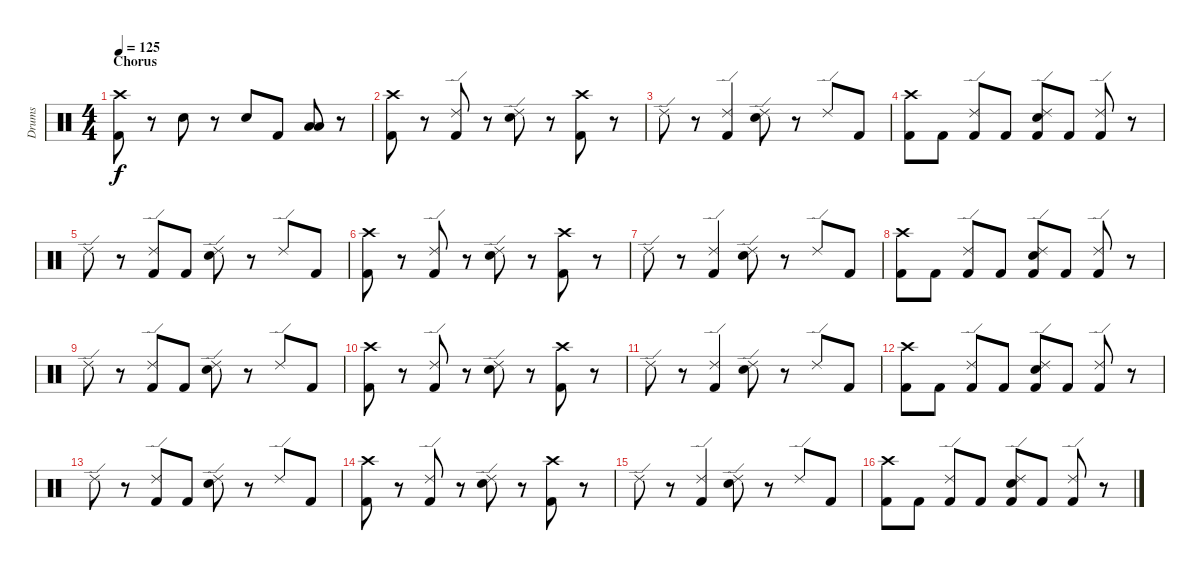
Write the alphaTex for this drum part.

\track ("Drums" "Drums") {instrument percussion}
\staff {score}
\articulation defaults
\ts (4 4)
\section ("" "Chorus")
\tempo 125
\clef neutral
\ks c
("Crash high (hit)" "Kick (hit) 2").8{dy f} r.8 "Electric Snare (hit)".8 r.8 "Electric Snare (hit)".8 "Kick (hit) 2".8 ("Low Tom (hit)" "Low Tom (hit)").8 r.8 |
("Crash high (hit)" "Kick (hit) 2").8 r.8 ("Ride (edge) 2" "Kick (hit) 2").8 r.8 ("Ride (edge) 2" "Electric Snare (hit)").8 r.8 ("Crash high (hit)" "Kick (hit) 2").8 r.8 |
"Ride (edge) 2".8 r.8 ("Ride (edge) 2" "Kick (hit) 2").4 ("Ride (edge) 2" "Electric Snare (hit)").8 r.8 "Ride (edge) 2".8 "Kick (hit) 2".8 |
("Crash high (hit)" "Kick (hit) 2").8 "Kick (hit) 2".8 ("Ride (edge) 2" "Kick (hit) 2").8 "Kick (hit) 2".8 ("Ride (edge) 2" "Electric Snare (hit)" "Kick (hit) 2").8 "Kick (hit) 2".8 ("Ride (edge) 2" "Kick (hit) 2").8 r.8 |
"Ride (edge) 2".8 r.8 ("Ride (edge) 2" "Kick (hit) 2").8 "Kick (hit) 2".8 ("Ride (edge) 2" "Electric Snare (hit)").8 r.8 "Ride (edge) 2".8 "Kick (hit) 2".8 |
("Crash high (hit)" "Kick (hit) 2").8 r.8 ("Ride (edge) 2" "Kick (hit) 2").8 r.8 ("Ride (edge) 2" "Electric Snare (hit)").8 r.8 ("Crash high (hit)" "Kick (hit) 2").8 r.8 |
"Ride (edge) 2".8 r.8 ("Ride (edge) 2" "Kick (hit) 2").4 ("Ride (edge) 2" "Electric Snare (hit)").8 r.8 "Ride (edge) 2".8 "Kick (hit) 2".8 |
("Crash high (hit)" "Kick (hit) 2").8 "Kick (hit) 2".8 ("Ride (edge) 2" "Kick (hit) 2").8 "Kick (hit) 2".8 ("Ride (edge) 2" "Electric Snare (hit)" "Kick (hit) 2").8 "Kick (hit) 2".8 ("Ride (edge) 2" "Kick (hit) 2").8 r.8 |
"Ride (edge) 2".8 r.8 ("Ride (edge) 2" "Kick (hit) 2").8 "Kick (hit) 2".8 ("Ride (edge) 2" "Electric Snare (hit)").8 r.8 "Ride (edge) 2".8 "Kick (hit) 2".8 |
("Crash high (hit)" "Kick (hit) 2").8 r.8 ("Ride (edge) 2" "Kick (hit) 2").8 r.8 ("Ride (edge) 2" "Electric Snare (hit)").8 r.8 ("Crash high (hit)" "Kick (hit) 2").8 r.8 |
"Ride (edge) 2".8 r.8 ("Ride (edge) 2" "Kick (hit) 2").4 ("Ride (edge) 2" "Electric Snare (hit)").8 r.8 "Ride (edge) 2".8 "Kick (hit) 2".8 |
("Crash high (hit)" "Kick (hit) 2").8 "Kick (hit) 2".8 ("Ride (edge) 2" "Kick (hit) 2").8 "Kick (hit) 2".8 ("Ride (edge) 2" "Electric Snare (hit)" "Kick (hit) 2").8 "Kick (hit) 2".8 ("Ride (edge) 2" "Kick (hit) 2").8 r.8 |
"Ride (edge) 2".8 r.8 ("Ride (edge) 2" "Kick (hit) 2").8 "Kick (hit) 2".8 ("Ride (edge) 2" "Electric Snare (hit)").8 r.8 "Ride (edge) 2".8 "Kick (hit) 2".8 |
("Crash high (hit)" "Kick (hit) 2").8 r.8 ("Ride (edge) 2" "Kick (hit) 2").8 r.8 ("Ride (edge) 2" "Electric Snare (hit)").8 r.8 ("Crash high (hit)" "Kick (hit) 2").8 r.8 |
"Ride (edge) 2".8 r.8 ("Ride (edge) 2" "Kick (hit) 2").4 ("Ride (edge) 2" "Electric Snare (hit)").8 r.8 "Ride (edge) 2".8 "Kick (hit) 2".8 |
("Crash high (hit)" "Kick (hit) 2").8 "Kick (hit) 2".8 ("Ride (edge) 2" "Kick (hit) 2").8 "Kick (hit) 2".8 ("Ride (edge) 2" "Electric Snare (hit)" "Kick (hit) 2").8 "Kick (hit) 2".8 ("Ride (edge) 2" "Kick (hit) 2").8 r.8
